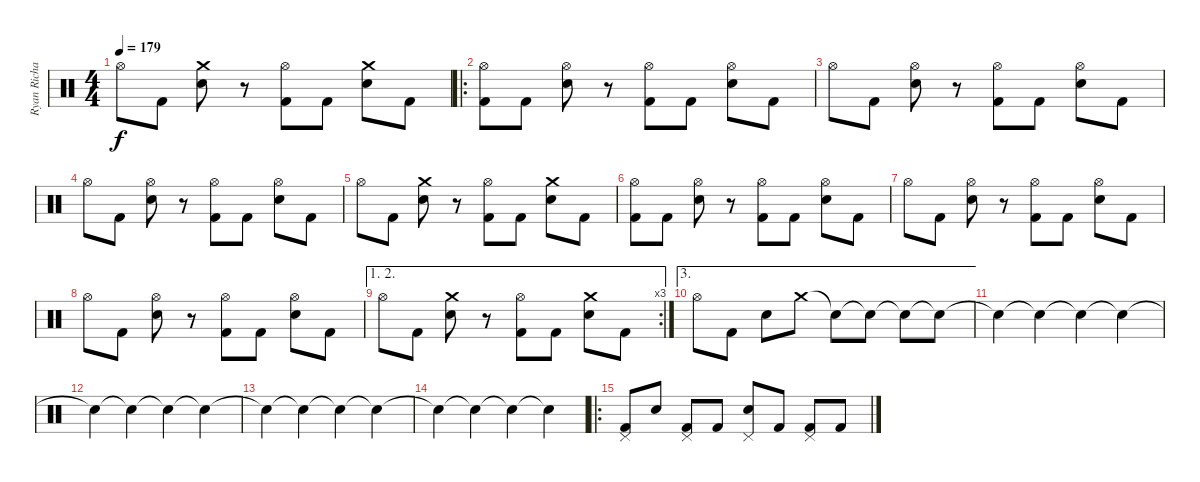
\track ("Ryan Richards" "Ryan Richa") {instrument percussion}
\staff {score}
\articulation defaults
\ts (4 4)
\tempo 179
\clef neutral
\ks c "Hi-Hat (open)".8{dy f} "Kick (hit) 2".8
("Crash medium (hit)" "Snare (hit) 2").8 r.8 ("Hi-Hat (open)" "Kick (hit) 2").8 "Kick (hit) 2".8 ("Crash medium (hit)" "Snare (hit) 2").8 "Kick (hit) 2".8 |
\ro
("Hi-Hat (open)" "Kick (hit) 2").8 "Kick (hit) 2".8 ("Hi-Hat (open)" "Snare (hit) 2").8 r.8 ("Hi-Hat (open)" "Kick (hit) 2").8 "Kick (hit) 2".8 ("Hi-Hat (open)" "Snare (hit) 2").8 "Kick (hit) 2".8 |
"Hi-Hat (open)".8 "Kick (hit) 2".8 ("Hi-Hat (open)" "Snare (hit) 2").8 r.8 ("Hi-Hat (open)" "Kick (hit) 2").8 "Kick (hit) 2".8 ("Hi-Hat (open)" "Snare (hit) 2").8 "Kick (hit) 2".8 |
"Hi-Hat (open)".8 "Kick (hit) 2".8 ("Hi-Hat (open)" "Snare (hit) 2").8 r.8 ("Hi-Hat (open)" "Kick (hit) 2").8 "Kick (hit) 2".8 ("Hi-Hat (open)" "Snare (hit) 2").8 "Kick (hit) 2".8 |
"Hi-Hat (open)".8 "Kick (hit) 2".8 ("Crash medium (hit)" "Snare (hit) 2").8 r.8 ("Hi-Hat (open)" "Kick (hit) 2").8 "Kick (hit) 2".8 ("Crash medium (hit)" "Snare (hit) 2").8 "Kick (hit) 2".8 |
("Hi-Hat (open)" "Kick (hit) 2").8 "Kick (hit) 2".8 ("Hi-Hat (open)" "Snare (hit) 2").8 r.8 ("Hi-Hat (open)" "Kick (hit) 2").8 "Kick (hit) 2".8 ("Hi-Hat (open)" "Snare (hit) 2").8 "Kick (hit) 2".8 |
"Hi-Hat (open)".8 "Kick (hit) 2".8 ("Hi-Hat (open)" "Snare (hit) 2").8 r.8 ("Hi-Hat (open)" "Kick (hit) 2").8 "Kick (hit) 2".8 ("Hi-Hat (open)" "Snare (hit) 2").8 "Kick (hit) 2".8 |
"Hi-Hat (open)".8 "Kick (hit) 2".8 ("Hi-Hat (open)" "Snare (hit) 2").8 r.8 ("Hi-Hat (open)" "Kick (hit) 2").8 "Kick (hit) 2".8 ("Hi-Hat (open)" "Snare (hit) 2").8 "Kick (hit) 2".8 |
\ae (1 2)
\rc 3 "Hi-Hat (open)".8 "Kick (hit) 2".8
("Crash medium (hit)" "Snare (hit) 2").8 r.8 ("Hi-Hat (open)" "Kick (hit) 2").8 "Kick (hit) 2".8 ("Crash medium (hit)" "Snare (hit) 2").8 "Kick (hit) 2".8 |
\ae 3 "Hi-Hat (open)".8 "Kick (hit) 2".8 "Snare (hit) 2".8 "Crash medium (hit)".8 "Snare (hit)"{t}.8 "Snare (hit)"{t}.8 "Snare (hit)"{t}.8 "Snare (hit)"{t}.8
|
"Snare (hit)"{t}.4 "Snare (hit)"{t}.4 "Snare (hit)"{t}.4 "Snare (hit)"{t}.4 |
"Snare (hit)"{t}.4 "Snare (hit)"{t}.4 "Snare (hit)"{t}.4 "Snare (hit)"{t}.4 |
"Snare (hit)"{t}.4 "Snare (hit)"{t}.4 "Snare (hit)"{t}.4 "Snare (hit)"{t}.4 |
"Snare (hit)"{t}.4 "Snare (hit)"{t}.4 "Snare (hit)"{t}.4 "Snare (hit)"{t}.4 |
\ro
("Pedal Hi-Hat (hit)" "Kick (hit) 2").8 "Snare (hit) 2".8 ("Pedal Hi-Hat (hit)" "Kick (hit) 2").8 "Kick (hit) 2".8 ("Pedal Hi-Hat (hit)" "Snare (hit) 2").8 "Kick (hit) 2".8 ("Pedal Hi-Hat (hit)" "Kick (hit) 2").8 "Kick (hit) 2".8
